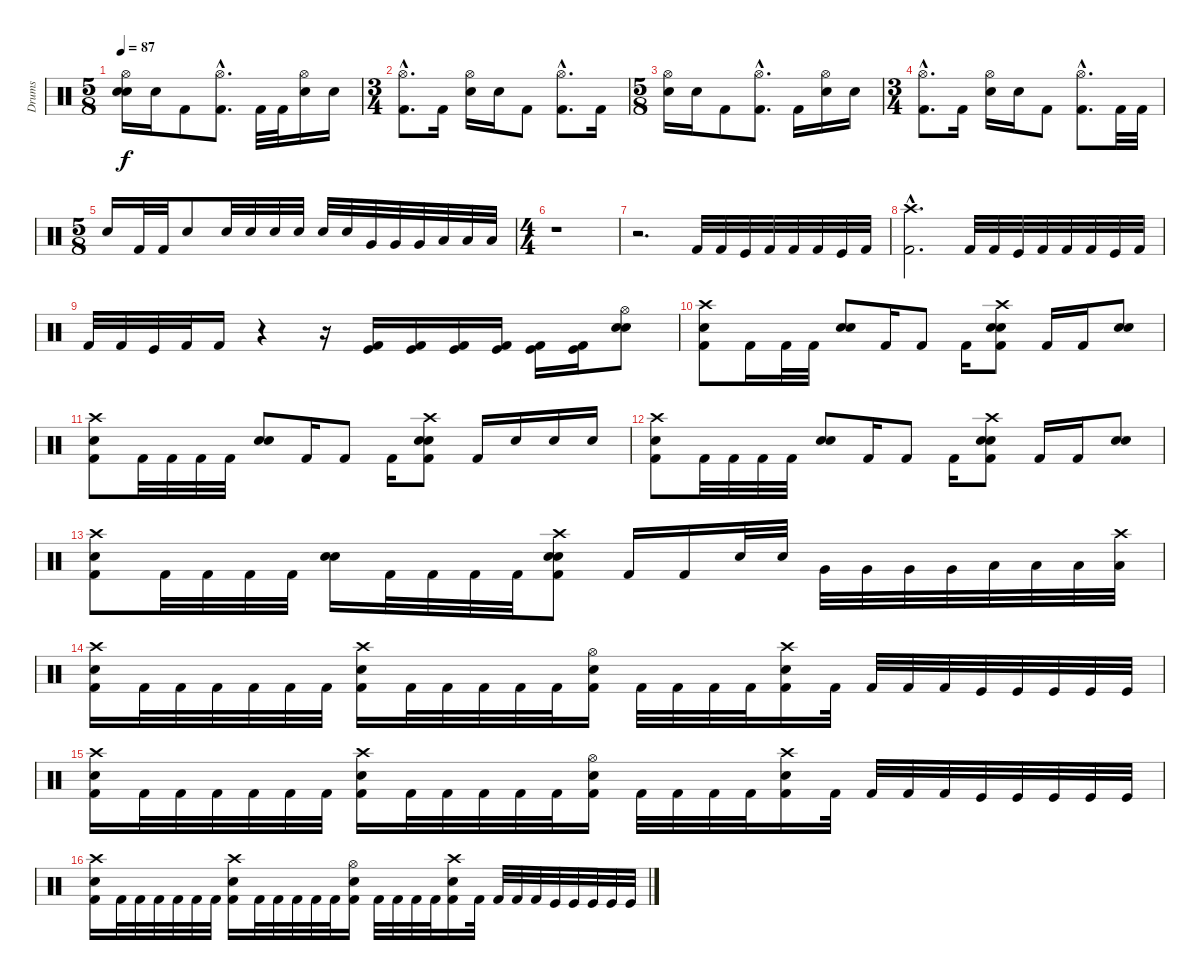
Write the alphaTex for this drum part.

\track ("Drums" "Drums") {instrument percussion}
\staff {score}
\articulation defaults
\ts (5 8)
\tempo 87
\clef neutral
\ks c
("Hi-Hat (open)" "Electric Snare (hit)" "Snare (hit)").16{dy f} "Snare (hit) 2".16 "Kick (hit) 2".8 ("Hi-Hat (open)"{hac} "Kick (hit) 2"{hac}).8{d} "Kick (hit) 2".32 "Kick (hit) 2".32 ("Hi-Hat (open)" "Electric Snare (hit)").16 "Snare (hit) 2".16 |
\ts (3 4)
("Hi-Hat (open)"{hac} "Kick (hit) 2"{hac}).8{d} "Kick (hit) 2".16 ("Hi-Hat (open)" "Electric Snare (hit)").16 "Snare (hit) 2".16 "Kick (hit) 2".8 ("Hi-Hat (open)"{hac} "Kick (hit) 2"{hac}).8{d} "Kick (hit) 2".16 |
\ts (5 8)
("Hi-Hat (open)" "Electric Snare (hit)").16 "Snare (hit) 2".16 "Kick (hit) 2".8 ("Hi-Hat (open)"{hac} "Kick (hit) 2"{hac}).8{d} "Kick (hit) 2".16 ("Hi-Hat (open)" "Electric Snare (hit)").16 "Snare (hit) 2".16 |
\ts (3 4)
("Hi-Hat (open)"{hac} "Kick (hit) 2"{hac}).8{d} "Kick (hit) 2".16 ("Hi-Hat (open)" "Electric Snare (hit)").16 "Snare (hit) 2".16 "Kick (hit) 2".8 ("Hi-Hat (open)"{hac} "Kick (hit) 2"{hac}).8{d} "Kick (hit) 2".32 "Kick (hit) 2".32 |
\ts (5 8)
"Snare (hit) 2".16 "Kick (hit) 2".32 "Kick (hit) 2".32 "Snare (hit) 2".8 "Snare (hit) 2".32 "Snare (hit) 2".32 "Snare (hit) 2".32 "Snare (hit) 2".32 "Snare (hit) 2".32 "Snare (hit) 2".32 "Very Low Tom (hit)".32 "Very Low Tom (hit)".32 "Very Low Tom (hit)".32 "Low Floor Tom (hit)".32 "Low Floor Tom (hit)".32 "Low Floor Tom (hit)".32 |
\ts (4 4)
r.1 |
r.2{d} "Kick (hit) 2".32 "Kick (hit) 2".32 "Kick (hit)".32 "Kick (hit) 2".32 "Kick (hit) 2".32 "Kick (hit) 2".32 "Kick (hit)".32 "Kick (hit) 2".32 |
("Crash high (hit)"{hac} "Kick (hit) 2"{hac}).2{d} "Kick (hit) 2".32 "Kick (hit) 2".32 "Kick (hit)".32 "Kick (hit) 2".32 "Kick (hit) 2".32 "Kick (hit) 2".32 "Kick (hit)".32 "Kick (hit) 2".32 |
"Kick (hit) 2".32 "Kick (hit) 2".32 "Kick (hit)".32 "Kick (hit) 2".32 "Kick (hit) 2".16 r.4 r.16 ("Kick (hit)" "Kick (hit) 2").16 ("Kick (hit)" "Kick (hit) 2").16 ("Kick (hit)" "Kick (hit) 2").16 ("Kick (hit)" "Kick (hit) 2").16 ("Kick (hit)" "Kick (hit) 2").16 ("Kick (hit)" "Kick (hit) 2").16 ("Hi-Hat (open)" "Electric Snare (hit)" "Snare (hit) 2").8 |
("Crash high (hit)" "Snare (hit) 2" "Kick (hit) 2").8 "Kick (hit) 2".16 "Kick (hit) 2".32 "Kick (hit) 2".32 ("Electric Snare (hit)" "Snare (hit) 2").8 "Kick (hit) 2".16 "Kick (hit) 2".8 "Kick (hit) 2".16 ("Crash high (hit)" "Electric Snare (hit)" "Snare (hit) 2" "Kick (hit) 2").8 "Kick (hit) 2".16 "Kick (hit) 2".16 ("Electric Snare (hit)" "Snare (hit) 2").8 |
("Crash high (hit)" "Snare (hit) 2" "Kick (hit) 2").8 "Kick (hit) 2".32 "Kick (hit) 2".32 "Kick (hit) 2".32 "Kick (hit) 2".32 ("Electric Snare (hit)" "Snare (hit) 2").8 "Kick (hit) 2".16 "Kick (hit) 2".8 "Kick (hit) 2".16 ("Crash high (hit)" "Electric Snare (hit)" "Snare (hit) 2" "Kick (hit) 2").8 "Kick (hit) 2".16 "Snare (hit) 2".16 "Electric Snare (hit)".16 "Snare (hit) 2".16 |
("Crash high (hit)" "Snare (hit) 2" "Kick (hit) 2").8 "Kick (hit) 2".32 "Kick (hit) 2".32 "Kick (hit) 2".32 "Kick (hit) 2".32 ("Electric Snare (hit)" "Snare (hit) 2").8 "Kick (hit) 2".16 "Kick (hit) 2".8 "Kick (hit) 2".16 ("Crash high (hit)" "Electric Snare (hit)" "Snare (hit) 2" "Kick (hit) 2").8 "Kick (hit) 2".16 "Kick (hit) 2".16 ("Electric Snare (hit)" "Snare (hit) 2").8 |
("Crash high (hit)" "Snare (hit) 2" "Kick (hit) 2").8 "Kick (hit) 2".32 "Kick (hit) 2".32 "Kick (hit) 2".32 "Kick (hit) 2".32 ("Electric Snare (hit)" "Snare (hit) 2").16 "Kick (hit) 2".32 "Kick (hit) 2".32 "Kick (hit) 2".32 "Kick (hit) 2".32 ("Crash high (hit)" "Electric Snare (hit)" "Snare (hit) 2" "Kick (hit) 2").8 "Kick (hit) 2".16 "Kick (hit) 2".16 "Snare (hit) 2".32 "Snare (hit) 2".32 "Very Low Tom (hit)".32 "Very Low Tom (hit)".32 "Very Low Tom (hit)".32 "Very Low Tom (hit)".32 "Low Floor Tom (hit)".32 "Low Floor Tom (hit)".32 "Low Floor Tom (hit)".32 ("Crash high (hit)" "Low Floor Tom (hit)").32 |
("Crash high (hit)" "Snare (hit) 2" "Kick (hit) 2").16 "Kick (hit) 2".32 "Kick (hit) 2".32 "Kick (hit) 2".32 "Kick (hit) 2".32 "Kick (hit) 2".32 "Kick (hit) 2".32 ("Crash high (hit)" "Snare (hit) 2" "Kick (hit) 2").16 "Kick (hit) 2".32 "Kick (hit) 2".32 "Kick (hit) 2".32 "Kick (hit) 2".32 "Kick (hit) 2".32 ("Hi-Hat (open)" "Snare (hit) 2" "Kick (hit) 2").16 "Kick (hit) 2".32 "Kick (hit) 2".32 "Kick (hit) 2".32 "Kick (hit) 2".32 ("Crash high (hit)" "Snare (hit) 2" "Kick (hit) 2").16 "Kick (hit) 2".32 "Kick (hit) 2".32 "Kick (hit) 2".32 "Kick (hit) 2".32 "Kick (hit)".32 "Kick (hit)".32 "Kick (hit)".32 "Kick (hit)".32 "Kick (hit)".32 |
("Crash high (hit)" "Snare (hit) 2" "Kick (hit) 2").16 "Kick (hit) 2".32 "Kick (hit) 2".32 "Kick (hit) 2".32 "Kick (hit) 2".32 "Kick (hit) 2".32 "Kick (hit) 2".32 ("Crash high (hit)" "Snare (hit) 2" "Kick (hit) 2").16 "Kick (hit) 2".32 "Kick (hit) 2".32 "Kick (hit) 2".32 "Kick (hit) 2".32 "Kick (hit) 2".32 ("Hi-Hat (open)" "Snare (hit) 2" "Kick (hit) 2").16 "Kick (hit) 2".32 "Kick (hit) 2".32 "Kick (hit) 2".32 "Kick (hit) 2".32 ("Crash high (hit)" "Snare (hit) 2" "Kick (hit) 2").16 "Kick (hit) 2".32 "Kick (hit) 2".32 "Kick (hit) 2".32 "Kick (hit) 2".32 "Kick (hit)".32 "Kick (hit)".32 "Kick (hit)".32 "Kick (hit)".32 "Kick (hit)".32 |
("Crash high (hit)" "Snare (hit) 2" "Kick (hit) 2").16 "Kick (hit) 2".32 "Kick (hit) 2".32 "Kick (hit) 2".32 "Kick (hit) 2".32 "Kick (hit) 2".32 "Kick (hit) 2".32 ("Crash high (hit)" "Snare (hit) 2" "Kick (hit) 2").16 "Kick (hit) 2".32 "Kick (hit) 2".32 "Kick (hit) 2".32 "Kick (hit) 2".32 "Kick (hit) 2".32 ("Hi-Hat (open)" "Snare (hit) 2" "Kick (hit) 2").16 "Kick (hit) 2".32 "Kick (hit) 2".32 "Kick (hit) 2".32 "Kick (hit) 2".32 ("Crash high (hit)" "Snare (hit) 2" "Kick (hit) 2").16 "Kick (hit) 2".32 "Kick (hit) 2".32 "Kick (hit) 2".32 "Kick (hit) 2".32 "Kick (hit)".32 "Kick (hit)".32 "Kick (hit)".32 "Kick (hit)".32 "Kick (hit)".32
